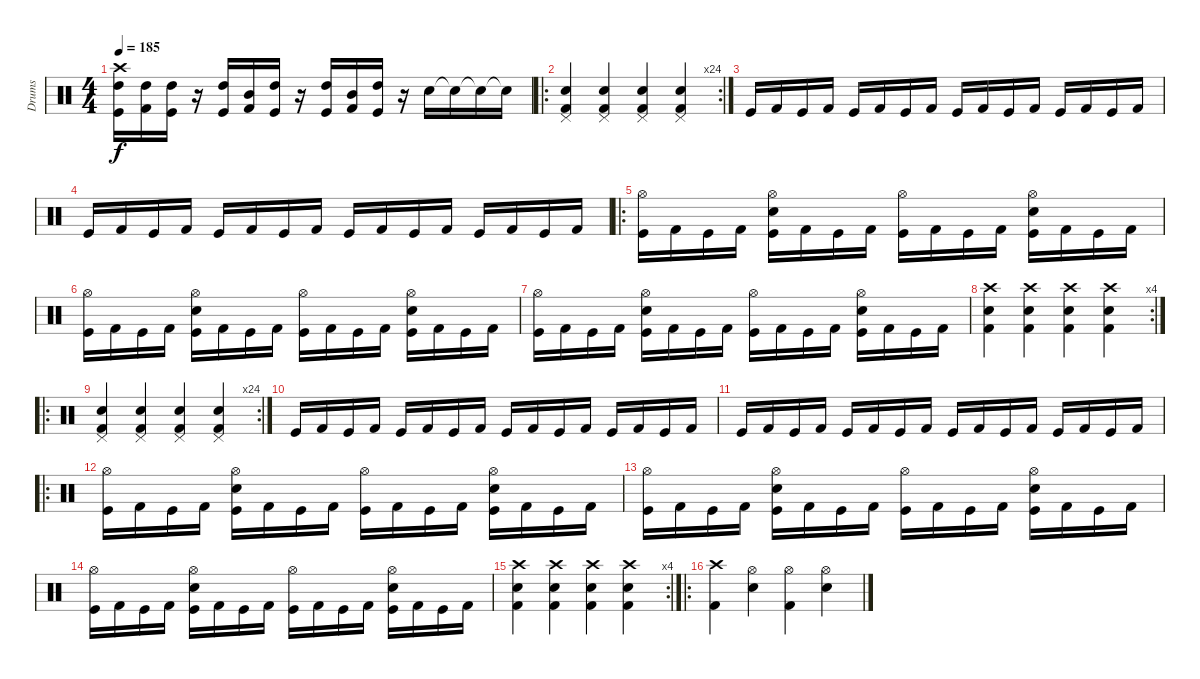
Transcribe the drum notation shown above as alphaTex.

\track ("Drums" "Drums") {instrument percussion}
\staff {score}
\articulation defaults
\ts (4 4)
\tempo 185
\clef neutral
\ks c
("High Tom (hit)" "Kick (hit)" "Crash high (hit)").16{dy f} ("High Tom (hit)" "Kick (hit) 2").16 ("High Tom (hit)" "Kick (hit)").16 r.16 ("High Tom (hit)" "Kick (hit)").16 ("Mid Tom (hit)" "Kick (hit) 2").16 ("High Tom (hit)" "Kick (hit)").16 r.16 ("High Tom (hit)" "Kick (hit)").16 ("Mid Tom (hit)" "Kick (hit) 2").16 ("High Tom (hit)" "Kick (hit)").16 r.16 "Snare (hit) 2".16 "Snare (hit)"{t}.16 "Snare (hit)"{t}.16 "Snare (hit)"{t}.16 |
\ro
\rc 24
("Snare (hit) 2" "Kick (hit) 2" "Pedal Hi-Hat (hit)").4 ("Snare (hit) 2" "Kick (hit) 2" "Pedal Hi-Hat (hit)").4 ("Snare (hit) 2" "Kick (hit) 2" "Pedal Hi-Hat (hit)").4 ("Snare (hit) 2" "Kick (hit) 2" "Pedal Hi-Hat (hit)").4 |
"Kick (hit)".16 "Kick (hit) 2".16 "Kick (hit)".16 "Kick (hit) 2".16 "Kick (hit)".16 "Kick (hit) 2".16 "Kick (hit)".16 "Kick (hit) 2".16 "Kick (hit)".16 "Kick (hit) 2".16 "Kick (hit)".16 "Kick (hit) 2".16 "Kick (hit)".16 "Kick (hit) 2".16 "Kick (hit)".16 "Kick (hit) 2".16 |
"Kick (hit)".16 "Kick (hit) 2".16 "Kick (hit)".16 "Kick (hit) 2".16 "Kick (hit)".16 "Kick (hit) 2".16 "Kick (hit)".16 "Kick (hit) 2".16 "Kick (hit)".16 "Kick (hit) 2".16 "Kick (hit)".16 "Kick (hit) 2".16 "Kick (hit)".16 "Kick (hit) 2".16 "Kick (hit)".16 "Kick (hit) 2".16 |
\ro
("Kick (hit)" "Hi-Hat (open)").16 "Kick (hit) 2".16 "Kick (hit)".16 "Kick (hit) 2".16 ("Kick (hit)" "Snare (hit) 2" "Hi-Hat (open)").16 "Kick (hit) 2".16 "Kick (hit)".16 "Kick (hit) 2".16 ("Kick (hit)" "Hi-Hat (open)").16 "Kick (hit) 2".16 "Kick (hit)".16 "Kick (hit) 2".16 ("Kick (hit)" "Snare (hit) 2" "Hi-Hat (open)").16 "Kick (hit) 2".16 "Kick (hit)".16 "Kick (hit) 2".16 |
("Kick (hit)" "Hi-Hat (open)").16 "Kick (hit) 2".16 "Kick (hit)".16 "Kick (hit) 2".16 ("Kick (hit)" "Snare (hit) 2" "Hi-Hat (open)").16 "Kick (hit) 2".16 "Kick (hit)".16 "Kick (hit) 2".16 ("Kick (hit)" "Hi-Hat (open)").16 "Kick (hit) 2".16 "Kick (hit)".16 "Kick (hit) 2".16 ("Kick (hit)" "Snare (hit) 2" "Hi-Hat (open)").16 "Kick (hit) 2".16 "Kick (hit)".16 "Kick (hit) 2".16 |
("Kick (hit)" "Hi-Hat (open)").16 "Kick (hit) 2".16 "Kick (hit)".16 "Kick (hit) 2".16 ("Kick (hit)" "Snare (hit) 2" "Hi-Hat (open)").16 "Kick (hit) 2".16 "Kick (hit)".16 "Kick (hit) 2".16 ("Kick (hit)" "Hi-Hat (open)").16 "Kick (hit) 2".16 "Kick (hit)".16 "Kick (hit) 2".16 ("Kick (hit)" "Snare (hit) 2" "Hi-Hat (open)").16 "Kick (hit) 2".16 "Kick (hit)".16 "Kick (hit) 2".16 |
\rc 4
("Snare (hit) 2" "Kick (hit) 2" "Crash high (hit)").4 ("Snare (hit) 2" "Kick (hit) 2" "Crash high (hit)").4 ("Snare (hit) 2" "Kick (hit) 2" "Crash high (hit)").4 ("Snare (hit) 2" "Kick (hit) 2" "Crash high (hit)").4 |
\ro
\rc 24
("Snare (hit) 2" "Kick (hit) 2" "Pedal Hi-Hat (hit)").4 ("Snare (hit) 2" "Kick (hit) 2" "Pedal Hi-Hat (hit)").4 ("Snare (hit) 2" "Kick (hit) 2" "Pedal Hi-Hat (hit)").4 ("Snare (hit) 2" "Kick (hit) 2" "Pedal Hi-Hat (hit)").4 |
"Kick (hit)".16 "Kick (hit) 2".16 "Kick (hit)".16 "Kick (hit) 2".16 "Kick (hit)".16 "Kick (hit) 2".16 "Kick (hit)".16 "Kick (hit) 2".16 "Kick (hit)".16 "Kick (hit) 2".16 "Kick (hit)".16 "Kick (hit) 2".16 "Kick (hit)".16 "Kick (hit) 2".16 "Kick (hit)".16 "Kick (hit) 2".16 |
"Kick (hit)".16 "Kick (hit) 2".16 "Kick (hit)".16 "Kick (hit) 2".16 "Kick (hit)".16 "Kick (hit) 2".16 "Kick (hit)".16 "Kick (hit) 2".16 "Kick (hit)".16 "Kick (hit) 2".16 "Kick (hit)".16 "Kick (hit) 2".16 "Kick (hit)".16 "Kick (hit) 2".16 "Kick (hit)".16 "Kick (hit) 2".16 |
\ro
("Kick (hit)" "Hi-Hat (open)").16 "Kick (hit) 2".16 "Kick (hit)".16 "Kick (hit) 2".16 ("Kick (hit)" "Snare (hit) 2" "Hi-Hat (open)").16 "Kick (hit) 2".16 "Kick (hit)".16 "Kick (hit) 2".16 ("Kick (hit)" "Hi-Hat (open)").16 "Kick (hit) 2".16 "Kick (hit)".16 "Kick (hit) 2".16 ("Kick (hit)" "Snare (hit) 2" "Hi-Hat (open)").16 "Kick (hit) 2".16 "Kick (hit)".16 "Kick (hit) 2".16 |
("Kick (hit)" "Hi-Hat (open)").16 "Kick (hit) 2".16 "Kick (hit)".16 "Kick (hit) 2".16 ("Kick (hit)" "Snare (hit) 2" "Hi-Hat (open)").16 "Kick (hit) 2".16 "Kick (hit)".16 "Kick (hit) 2".16 ("Kick (hit)" "Hi-Hat (open)").16 "Kick (hit) 2".16 "Kick (hit)".16 "Kick (hit) 2".16 ("Kick (hit)" "Snare (hit) 2" "Hi-Hat (open)").16 "Kick (hit) 2".16 "Kick (hit)".16 "Kick (hit) 2".16 |
("Kick (hit)" "Hi-Hat (open)").16 "Kick (hit) 2".16 "Kick (hit)".16 "Kick (hit) 2".16 ("Kick (hit)" "Snare (hit) 2" "Hi-Hat (open)").16 "Kick (hit) 2".16 "Kick (hit)".16 "Kick (hit) 2".16 ("Kick (hit)" "Hi-Hat (open)").16 "Kick (hit) 2".16 "Kick (hit)".16 "Kick (hit) 2".16 ("Kick (hit)" "Snare (hit) 2" "Hi-Hat (open)").16 "Kick (hit) 2".16 "Kick (hit)".16 "Kick (hit) 2".16 |
\rc 4
("Snare (hit) 2" "Kick (hit) 2" "Crash high (hit)").4 ("Snare (hit) 2" "Kick (hit) 2" "Crash high (hit)").4 ("Snare (hit) 2" "Kick (hit) 2" "Crash high (hit)").4 ("Snare (hit) 2" "Kick (hit) 2" "Crash high (hit)").4 |
\ro
("Kick (hit) 2" "Crash high (hit)").4 ("Snare (hit) 2" "Hi-Hat (open)").4 ("Kick (hit) 2" "Hi-Hat (open)").4 ("Snare (hit) 2" "Hi-Hat (open)").4
